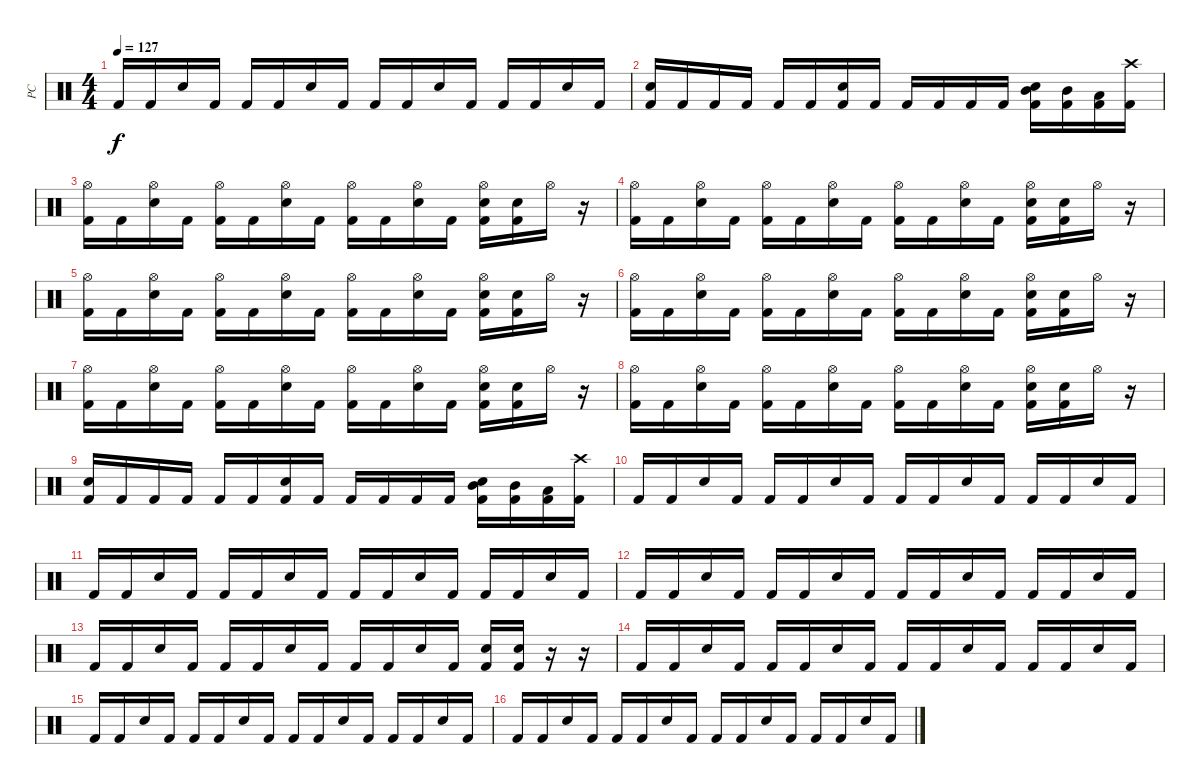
\track ("PC" "PC") {instrument percussion}
\staff {score}
\articulation defaults
\ts (4 4)
\tempo 127
\clef neutral
\ks c "Kick (hit) 2".16{dy f} "Kick (hit) 2".16 "Snare (hit) 2".16 "Kick (hit) 2".16 "Kick (hit) 2".16 "Kick (hit) 2".16 "Snare (hit) 2".16 "Kick (hit) 2".16 "Kick (hit) 2".16 "Kick (hit) 2".16 "Snare (hit) 2".16 "Kick (hit) 2".16 "Kick (hit) 2".16 "Kick (hit) 2".16 "Snare (hit) 2".16 "Kick (hit) 2".16
|
("Snare (hit) 2" "Kick (hit) 2").16 "Kick (hit) 2".16 "Kick (hit) 2".16 "Kick (hit) 2".16 "Kick (hit) 2".16 "Kick (hit) 2".16 ("Snare (hit) 2" "Kick (hit) 2").16 "Kick (hit) 2".16 "Kick (hit) 2".16 "Kick (hit) 2".16 "Kick (hit) 2".16 "Kick (hit) 2".16 ("Mid Tom (hit)" "Snare (hit) 2" "Kick (hit) 2").16 ("Mid Tom (hit)" "Kick (hit) 2").16 ("Low Tom (hit)" "Kick (hit) 2").16 ("Crash high (hit)" "Kick (hit) 2").16 |
("Hi-Hat (open)" "Kick (hit) 2").16 "Kick (hit) 2".16 ("Hi-Hat (open)" "Snare (hit) 2").16 "Kick (hit) 2".16 ("Hi-Hat (open)" "Kick (hit) 2").16 "Kick (hit) 2".16 ("Hi-Hat (open)" "Snare (hit) 2").16 "Kick (hit) 2".16 ("Hi-Hat (open)" "Kick (hit) 2").16 "Kick (hit) 2".16 ("Hi-Hat (open)" "Snare (hit) 2").16 "Kick (hit) 2".16 ("Hi-Hat (open)" "Snare (hit) 2" "Kick (hit) 2").16 ("Snare (hit) 2" "Kick (hit) 2").16 "Hi-Hat (open)".16 r.16 |
("Hi-Hat (open)" "Kick (hit) 2").16 "Kick (hit) 2".16 ("Hi-Hat (open)" "Snare (hit) 2").16 "Kick (hit) 2".16 ("Hi-Hat (open)" "Kick (hit) 2").16 "Kick (hit) 2".16 ("Hi-Hat (open)" "Snare (hit) 2").16 "Kick (hit) 2".16 ("Hi-Hat (open)" "Kick (hit) 2").16 "Kick (hit) 2".16 ("Hi-Hat (open)" "Snare (hit) 2").16 "Kick (hit) 2".16 ("Hi-Hat (open)" "Snare (hit) 2" "Kick (hit) 2").16 ("Snare (hit) 2" "Kick (hit) 2").16 "Hi-Hat (open)".16 r.16 |
("Hi-Hat (open)" "Kick (hit) 2").16 "Kick (hit) 2".16 ("Hi-Hat (open)" "Snare (hit) 2").16 "Kick (hit) 2".16 ("Hi-Hat (open)" "Kick (hit) 2").16 "Kick (hit) 2".16 ("Hi-Hat (open)" "Snare (hit) 2").16 "Kick (hit) 2".16 ("Hi-Hat (open)" "Kick (hit) 2").16 "Kick (hit) 2".16 ("Hi-Hat (open)" "Snare (hit) 2").16 "Kick (hit) 2".16 ("Hi-Hat (open)" "Snare (hit) 2" "Kick (hit) 2").16 ("Snare (hit) 2" "Kick (hit) 2").16 "Hi-Hat (open)".16 r.16 |
("Hi-Hat (open)" "Kick (hit) 2").16 "Kick (hit) 2".16 ("Hi-Hat (open)" "Snare (hit) 2").16 "Kick (hit) 2".16 ("Hi-Hat (open)" "Kick (hit) 2").16 "Kick (hit) 2".16 ("Hi-Hat (open)" "Snare (hit) 2").16 "Kick (hit) 2".16 ("Hi-Hat (open)" "Kick (hit) 2").16 "Kick (hit) 2".16 ("Hi-Hat (open)" "Snare (hit) 2").16 "Kick (hit) 2".16 ("Hi-Hat (open)" "Snare (hit) 2" "Kick (hit) 2").16 ("Snare (hit) 2" "Kick (hit) 2").16 "Hi-Hat (open)".16 r.16 |
("Hi-Hat (open)" "Kick (hit) 2").16 "Kick (hit) 2".16 ("Hi-Hat (open)" "Snare (hit) 2").16 "Kick (hit) 2".16 ("Hi-Hat (open)" "Kick (hit) 2").16 "Kick (hit) 2".16 ("Hi-Hat (open)" "Snare (hit) 2").16 "Kick (hit) 2".16 ("Hi-Hat (open)" "Kick (hit) 2").16 "Kick (hit) 2".16 ("Hi-Hat (open)" "Snare (hit) 2").16 "Kick (hit) 2".16 ("Hi-Hat (open)" "Snare (hit) 2" "Kick (hit) 2").16 ("Snare (hit) 2" "Kick (hit) 2").16 "Hi-Hat (open)".16 r.16 |
("Hi-Hat (open)" "Kick (hit) 2").16 "Kick (hit) 2".16 ("Hi-Hat (open)" "Snare (hit) 2").16 "Kick (hit) 2".16 ("Hi-Hat (open)" "Kick (hit) 2").16 "Kick (hit) 2".16 ("Hi-Hat (open)" "Snare (hit) 2").16 "Kick (hit) 2".16 ("Hi-Hat (open)" "Kick (hit) 2").16 "Kick (hit) 2".16 ("Hi-Hat (open)" "Snare (hit) 2").16 "Kick (hit) 2".16 ("Hi-Hat (open)" "Snare (hit) 2" "Kick (hit) 2").16 ("Snare (hit) 2" "Kick (hit) 2").16 "Hi-Hat (open)".16 r.16 |
("Snare (hit) 2" "Kick (hit) 2").16 "Kick (hit) 2".16 "Kick (hit) 2".16 "Kick (hit) 2".16 "Kick (hit) 2".16 "Kick (hit) 2".16 ("Snare (hit) 2" "Kick (hit) 2").16 "Kick (hit) 2".16 "Kick (hit) 2".16 "Kick (hit) 2".16 "Kick (hit) 2".16 "Kick (hit) 2".16 ("Mid Tom (hit)" "Snare (hit) 2" "Kick (hit) 2").16 ("Mid Tom (hit)" "Kick (hit) 2").16 ("Low Tom (hit)" "Kick (hit) 2").16 ("Crash high (hit)" "Kick (hit) 2").16 |
"Kick (hit) 2".16 "Kick (hit) 2".16 "Snare (hit) 2".16 "Kick (hit) 2".16 "Kick (hit) 2".16 "Kick (hit) 2".16 "Snare (hit) 2".16 "Kick (hit) 2".16 "Kick (hit) 2".16 "Kick (hit) 2".16 "Snare (hit) 2".16 "Kick (hit) 2".16 "Kick (hit) 2".16 "Kick (hit) 2".16 "Snare (hit) 2".16 "Kick (hit) 2".16 |
"Kick (hit) 2".16 "Kick (hit) 2".16 "Snare (hit) 2".16 "Kick (hit) 2".16 "Kick (hit) 2".16 "Kick (hit) 2".16 "Snare (hit) 2".16 "Kick (hit) 2".16 "Kick (hit) 2".16 "Kick (hit) 2".16 "Snare (hit) 2".16 "Kick (hit) 2".16 "Kick (hit) 2".16 "Kick (hit) 2".16 "Snare (hit) 2".16 "Kick (hit) 2".16 |
"Kick (hit) 2".16 "Kick (hit) 2".16 "Snare (hit) 2".16 "Kick (hit) 2".16 "Kick (hit) 2".16 "Kick (hit) 2".16 "Snare (hit) 2".16 "Kick (hit) 2".16 "Kick (hit) 2".16 "Kick (hit) 2".16 "Snare (hit) 2".16 "Kick (hit) 2".16 "Kick (hit) 2".16 "Kick (hit) 2".16 "Snare (hit) 2".16 "Kick (hit) 2".16 |
"Kick (hit) 2".16 "Kick (hit) 2".16 "Snare (hit) 2".16 "Kick (hit) 2".16 "Kick (hit) 2".16 "Kick (hit) 2".16 "Snare (hit) 2".16 "Kick (hit) 2".16 "Kick (hit) 2".16 "Kick (hit) 2".16 "Snare (hit) 2".16 "Kick (hit) 2".16 ("Snare (hit) 2" "Kick (hit) 2").16 ("Snare (hit) 2" "Kick (hit) 2").16 r.16 r.16 |
"Kick (hit) 2".16 "Kick (hit) 2".16 "Snare (hit) 2".16 "Kick (hit) 2".16 "Kick (hit) 2".16 "Kick (hit) 2".16 "Snare (hit) 2".16 "Kick (hit) 2".16 "Kick (hit) 2".16 "Kick (hit) 2".16 "Snare (hit) 2".16 "Kick (hit) 2".16 "Kick (hit) 2".16 "Kick (hit) 2".16 "Snare (hit) 2".16 "Kick (hit) 2".16 |
"Kick (hit) 2".16 "Kick (hit) 2".16 "Snare (hit) 2".16 "Kick (hit) 2".16 "Kick (hit) 2".16 "Kick (hit) 2".16 "Snare (hit) 2".16 "Kick (hit) 2".16 "Kick (hit) 2".16 "Kick (hit) 2".16 "Snare (hit) 2".16 "Kick (hit) 2".16 "Kick (hit) 2".16 "Kick (hit) 2".16 "Snare (hit) 2".16 "Kick (hit) 2".16 |
"Kick (hit) 2".16 "Kick (hit) 2".16 "Snare (hit) 2".16 "Kick (hit) 2".16 "Kick (hit) 2".16 "Kick (hit) 2".16 "Snare (hit) 2".16 "Kick (hit) 2".16 "Kick (hit) 2".16 "Kick (hit) 2".16 "Snare (hit) 2".16 "Kick (hit) 2".16 "Kick (hit) 2".16 "Kick (hit) 2".16 "Snare (hit) 2".16 "Kick (hit) 2".16
